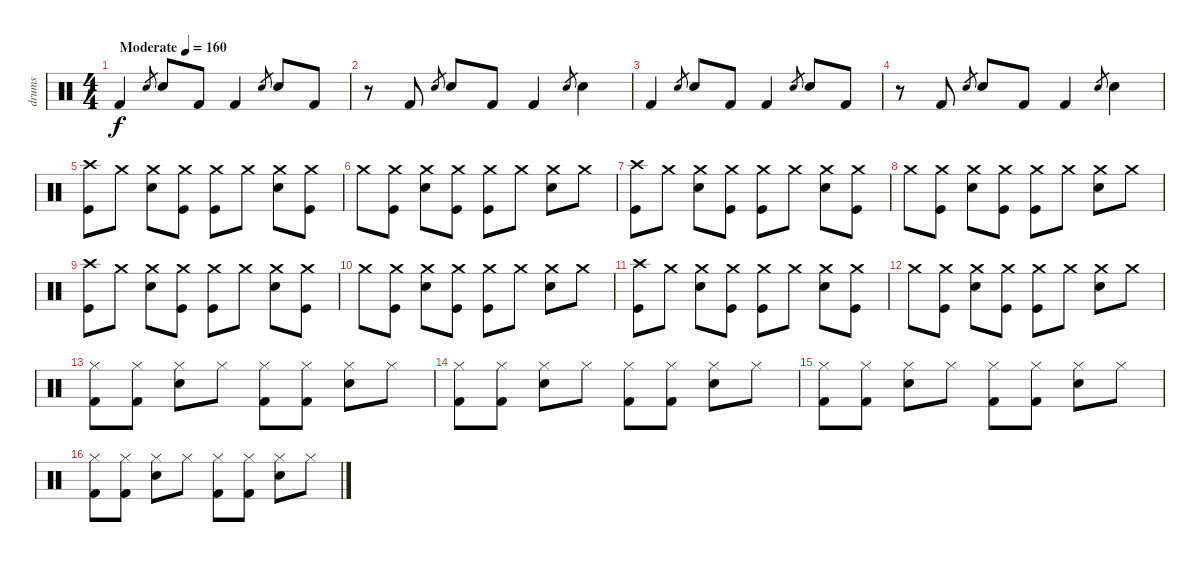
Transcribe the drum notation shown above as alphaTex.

\track ("drums" "drums") {instrument percussion}
\staff {score}
\articulation defaults
\ts (4 4)
\tempo (160 "Moderate")
\clef neutral
\ks c "Kick (hit) 2".4{dy f} "Electric Snare (hit)".8{gr} "Electric Snare (hit)".8 "Kick (hit) 2".8 "Kick (hit) 2".4 "Electric Snare (hit)".8{gr} "Electric Snare (hit)".8 "Kick (hit) 2".8
|
r.8 "Kick (hit) 2".8 "Electric Snare (hit)".8{gr} "Electric Snare (hit)".8 "Kick (hit) 2".8 "Kick (hit) 2".4 "Electric Snare (hit)".8{gr} "Electric Snare (hit)".4 |
"Kick (hit) 2".4 "Electric Snare (hit)".8{gr} "Electric Snare (hit)".8 "Kick (hit) 2".8 "Kick (hit) 2".4 "Electric Snare (hit)".8{gr} "Electric Snare (hit)".8 "Kick (hit) 2".8 |
r.8 "Kick (hit) 2".8 "Electric Snare (hit)".8{gr} "Electric Snare (hit)".8 "Kick (hit) 2".8 "Kick (hit) 2".4 "Electric Snare (hit)".8{gr} "Electric Snare (hit)".4 |
("Crash high (hit)" "Kick (hit)").8 "Crash medium (hit)".8 ("Crash medium (hit)" "Snare (hit) 2").8 ("Crash medium (hit)" "Kick (hit)").8 ("Crash medium (hit)" "Kick (hit)").8 "Crash medium (hit)".8 ("Crash medium (hit)" "Snare (hit) 2").8 ("Crash medium (hit)" "Kick (hit)").8 |
"Crash medium (hit)".8 ("Crash medium (hit)" "Kick (hit)").8 ("Crash medium (hit)" "Snare (hit) 2").8 ("Crash medium (hit)" "Kick (hit)").8 ("Crash medium (hit)" "Kick (hit)").8 "Crash medium (hit)".8 ("Crash medium (hit)" "Snare (hit) 2").8 "Crash medium (hit)".8 |
("Crash high (hit)" "Kick (hit)").8 "Crash medium (hit)".8 ("Crash medium (hit)" "Snare (hit) 2").8 ("Crash medium (hit)" "Kick (hit)").8 ("Crash medium (hit)" "Kick (hit)").8 "Crash medium (hit)".8 ("Crash medium (hit)" "Snare (hit) 2").8 ("Crash medium (hit)" "Kick (hit)").8 |
"Crash medium (hit)".8 ("Crash medium (hit)" "Kick (hit)").8 ("Crash medium (hit)" "Snare (hit) 2").8 ("Crash medium (hit)" "Kick (hit)").8 ("Crash medium (hit)" "Kick (hit)").8 "Crash medium (hit)".8 ("Crash medium (hit)" "Snare (hit) 2").8 "Crash medium (hit)".8 |
("Crash high (hit)" "Kick (hit)").8 "Crash medium (hit)".8 ("Crash medium (hit)" "Snare (hit) 2").8 ("Crash medium (hit)" "Kick (hit)").8 ("Crash medium (hit)" "Kick (hit)").8 "Crash medium (hit)".8 ("Crash medium (hit)" "Snare (hit) 2").8 ("Crash medium (hit)" "Kick (hit)").8 |
"Crash medium (hit)".8 ("Crash medium (hit)" "Kick (hit)").8 ("Crash medium (hit)" "Snare (hit) 2").8 ("Crash medium (hit)" "Kick (hit)").8 ("Crash medium (hit)" "Kick (hit)").8 "Crash medium (hit)".8 ("Crash medium (hit)" "Snare (hit) 2").8 "Crash medium (hit)".8 |
("Crash high (hit)" "Kick (hit)").8 "Crash medium (hit)".8 ("Crash medium (hit)" "Snare (hit) 2").8 ("Crash medium (hit)" "Kick (hit)").8 ("Crash medium (hit)" "Kick (hit)").8 "Crash medium (hit)".8 ("Crash medium (hit)" "Snare (hit) 2").8 ("Crash medium (hit)" "Kick (hit)").8 |
"Crash medium (hit)".8 ("Crash medium (hit)" "Kick (hit)").8 ("Crash medium (hit)" "Snare (hit) 2").8 ("Crash medium (hit)" "Kick (hit)").8 ("Crash medium (hit)" "Kick (hit)").8 "Crash medium (hit)".8 ("Crash medium (hit)" "Snare (hit) 2").8 "Crash medium (hit)".8 |
("Hi-Hat (closed)" "Kick (hit) 2").8 ("Hi-Hat (closed)" "Kick (hit) 2").8 ("Hi-Hat (closed)" "Electric Snare (hit)").8 "Hi-Hat (closed)".8 ("Hi-Hat (closed)" "Kick (hit) 2").8 ("Hi-Hat (closed)" "Kick (hit) 2").8 ("Hi-Hat (closed)" "Electric Snare (hit)").8 "Hi-Hat (closed)".8 |
("Hi-Hat (closed)" "Kick (hit) 2").8 ("Hi-Hat (closed)" "Kick (hit) 2").8 ("Hi-Hat (closed)" "Electric Snare (hit)").8 "Hi-Hat (closed)".8 ("Hi-Hat (closed)" "Kick (hit) 2").8 ("Hi-Hat (closed)" "Kick (hit) 2").8 ("Hi-Hat (closed)" "Electric Snare (hit)").8 "Hi-Hat (closed)".8 |
("Hi-Hat (closed)" "Kick (hit) 2").8 ("Hi-Hat (closed)" "Kick (hit) 2").8 ("Hi-Hat (closed)" "Electric Snare (hit)").8 "Hi-Hat (closed)".8 ("Hi-Hat (closed)" "Kick (hit) 2").8 ("Hi-Hat (closed)" "Kick (hit) 2").8 ("Hi-Hat (closed)" "Electric Snare (hit)").8 "Hi-Hat (closed)".8 |
("Hi-Hat (closed)" "Kick (hit) 2").8 ("Hi-Hat (closed)" "Kick (hit) 2").8 ("Hi-Hat (closed)" "Electric Snare (hit)").8 "Hi-Hat (closed)".8 ("Hi-Hat (closed)" "Kick (hit) 2").8 ("Hi-Hat (closed)" "Kick (hit) 2").8 ("Hi-Hat (closed)" "Electric Snare (hit)").8 "Hi-Hat (closed)".8
